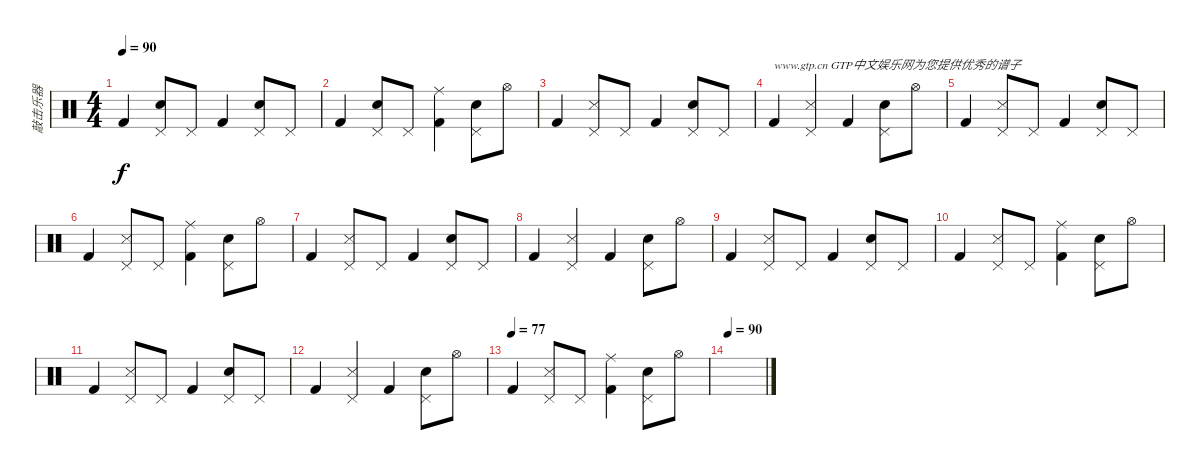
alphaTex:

\track ("敲击乐器" "敲击乐器") {instrument percussion}
\staff {score}
\articulation defaults
\ts (4 4)
\tempo 90
\clef neutral
\ks c "Kick (hit) 2".4{dy f}
("Snare (hit) 2" "Pedal Hi-Hat (hit)").8 "Pedal Hi-Hat (hit)".8 "Kick (hit) 2".4 ("Snare (hit) 2" "Pedal Hi-Hat (hit)").8 "Pedal Hi-Hat (hit)".8 |
"Kick (hit) 2".4 ("Snare (hit) 2" "Pedal Hi-Hat (hit)").8 "Pedal Hi-Hat (hit)".8 ("Ride (middle)" "Kick (hit) 2").4 ("Snare (hit) 2" "Pedal Hi-Hat (hit)").8 "Hi-Hat (open)".8 |
"Kick (hit) 2".4 ("Metronome (hit)" "Pedal Hi-Hat (hit)").8 "Pedal Hi-Hat (hit)".8 "Kick (hit) 2".4 ("Snare (hit) 2" "Pedal Hi-Hat (hit)").8 "Pedal Hi-Hat (hit)".8 |
"Kick (hit) 2".4{txt "www.gtp.cn GTP中文娱乐网为您提供优秀的谱子"} ("Metronome (hit)" "Pedal Hi-Hat (hit)").4 "Kick (hit) 2".4 ("Snare (hit) 2" "Pedal Hi-Hat (hit)").8 "Hi-Hat (open)".8 |
"Kick (hit) 2".4 ("Metronome (hit)" "Pedal Hi-Hat (hit)").8 "Pedal Hi-Hat (hit)".8 "Kick (hit) 2".4 ("Snare (hit) 2" "Pedal Hi-Hat (hit)").8 "Pedal Hi-Hat (hit)".8 |
"Kick (hit) 2".4 ("Metronome (hit)" "Pedal Hi-Hat (hit)").8 "Pedal Hi-Hat (hit)".8 ("Ride (middle)" "Kick (hit) 2").4 ("Snare (hit) 2" "Pedal Hi-Hat (hit)").8 "Hi-Hat (open)".8 |
"Kick (hit) 2".4 ("Metronome (hit)" "Pedal Hi-Hat (hit)").8 "Pedal Hi-Hat (hit)".8 "Kick (hit) 2".4 ("Snare (hit) 2" "Pedal Hi-Hat (hit)").8 "Pedal Hi-Hat (hit)".8 |
"Kick (hit) 2".4 ("Metronome (hit)" "Pedal Hi-Hat (hit)").4 "Kick (hit) 2".4 ("Snare (hit) 2" "Pedal Hi-Hat (hit)").8 "Hi-Hat (open)".8 |
"Kick (hit) 2".4 ("Metronome (hit)" "Pedal Hi-Hat (hit)").8 "Pedal Hi-Hat (hit)".8 "Kick (hit) 2".4 ("Snare (hit) 2" "Pedal Hi-Hat (hit)").8 "Pedal Hi-Hat (hit)".8 |
"Kick (hit) 2".4 ("Metronome (hit)" "Pedal Hi-Hat (hit)").8 "Pedal Hi-Hat (hit)".8 ("Ride (middle)" "Kick (hit) 2").4 ("Snare (hit) 2" "Pedal Hi-Hat (hit)").8 "Hi-Hat (open)".8 |
"Kick (hit) 2".4 ("Metronome (hit)" "Pedal Hi-Hat (hit)").8 "Pedal Hi-Hat (hit)".8 "Kick (hit) 2".4 ("Snare (hit) 2" "Pedal Hi-Hat (hit)").8 "Pedal Hi-Hat (hit)".8 |
"Kick (hit) 2".4 ("Metronome (hit)" "Pedal Hi-Hat (hit)").4 "Kick (hit) 2".4 ("Snare (hit) 2" "Pedal Hi-Hat (hit)").8 "Hi-Hat (open)".8 |
\tempo (77)
"Kick (hit) 2".4 ("Metronome (hit)" "Pedal Hi-Hat (hit)").8 "Pedal Hi-Hat (hit)".8 ("Ride (middle)" "Kick (hit) 2").4 ("Snare (hit) 2" "Pedal Hi-Hat (hit)").8 "Hi-Hat (open)".8 |
\tempo 90
